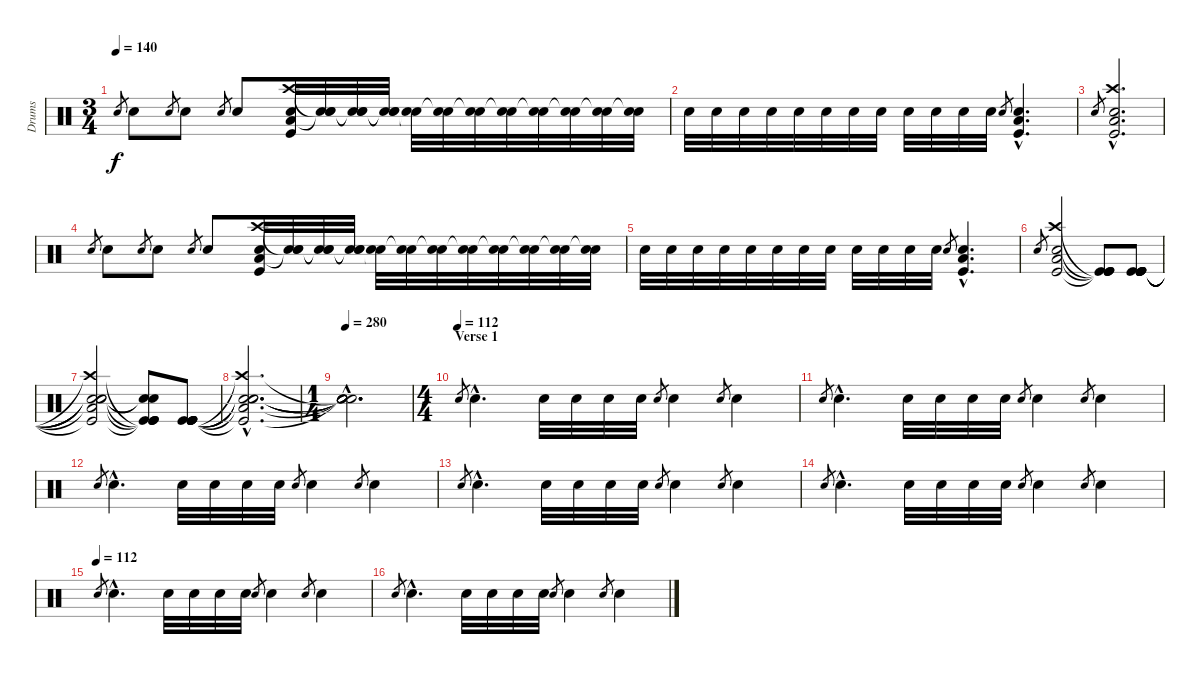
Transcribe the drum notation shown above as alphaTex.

\track ("Drums" "Drums") {instrument percussion}
\staff {score}
\articulation defaults
\ts (3 4)
\tempo 140
\clef neutral
\ks c "Snare (hit) 2".8{gr dy f} "Snare (hit) 2".8 "Snare (hit) 2".8{gr} "Snare (hit) 2".8 "Snare (hit) 2".8{gr} "Snare (hit) 2".8
("Crash high (hit)" "Snare (hit) 2" "Low Floor Tom (hit)" "Kick (hit)").32 ("Snare (hit)"{t} "Snare (hit) 2" "Snare (hit)"{t}).32 ("Snare (hit)"{t} "Snare (hit) 2" "Snare (hit)"{t}).32 ("Snare (hit)"{t} "Snare (hit) 2" "Snare (hit)"{t}).32 ("Snare (hit)"{t} "Snare (hit) 2").32 ("Snare (hit)"{t} "Snare (hit) 2").32 ("Snare (hit)"{t} "Snare (hit) 2").32 ("Snare (hit)"{t} "Snare (hit) 2").32 ("Snare (hit)"{t} "Snare (hit) 2").32 ("Snare (hit)"{t} "Snare (hit) 2").32 ("Snare (hit)"{t} "Snare (hit) 2").32 ("Snare (hit)"{t} "Snare (hit) 2").32 |
"Snare (hit) 2".32 "Snare (hit) 2".32 "Snare (hit) 2".32 "Snare (hit) 2".32 "Snare (hit) 2".32 "Snare (hit) 2".32 "Snare (hit) 2".32 "Snare (hit) 2".32 "Snare (hit) 2".32 "Snare (hit) 2".32 "Snare (hit) 2".32 "Snare (hit) 2".32 "Snare (hit) 2".8{gr} ("Snare (hit) 2"{hac} "Low Floor Tom (hit)"{hac} "Kick (hit)"{hac}).4{d} |
"Snare (hit) 2".8{gr} ("Crash high (hit)"{hac} "Snare (hit) 2"{hac} "Low Floor Tom (hit)"{hac} "Kick (hit)"{hac}).2{d} |
"Snare (hit) 2".8{gr} "Snare (hit) 2".8 "Snare (hit) 2".8{gr} "Snare (hit) 2".8 "Snare (hit) 2".8{gr} "Snare (hit) 2".8 ("Crash high (hit)" "Snare (hit) 2" "Low Floor Tom (hit)" "Kick (hit)").32 ("Snare (hit)"{t} "Snare (hit) 2" "Snare (hit)"{t}).32 ("Snare (hit)"{t} "Snare (hit) 2" "Snare (hit)"{t}).32 ("Snare (hit)"{t} "Snare (hit) 2" "Snare (hit)"{t}).32 ("Snare (hit)"{t} "Snare (hit) 2").32 ("Snare (hit)"{t} "Snare (hit) 2").32 ("Snare (hit)"{t} "Snare (hit) 2").32 ("Snare (hit)"{t} "Snare (hit) 2").32 ("Snare (hit)"{t} "Snare (hit) 2").32 ("Snare (hit)"{t} "Snare (hit) 2").32 ("Snare (hit)"{t} "Snare (hit) 2").32 ("Snare (hit)"{t} "Snare (hit) 2").32 |
"Snare (hit) 2".32 "Snare (hit) 2".32 "Snare (hit) 2".32 "Snare (hit) 2".32 "Snare (hit) 2".32 "Snare (hit) 2".32 "Snare (hit) 2".32 "Snare (hit) 2".32 "Snare (hit) 2".32 "Snare (hit) 2".32 "Snare (hit) 2".32 "Snare (hit) 2".32 "Snare (hit) 2".8{gr} ("Snare (hit) 2"{hac} "Low Floor Tom (hit)"{hac} "Kick (hit)"{hac}).4{d} |
"Snare (hit) 2".8{gr} ("Crash high (hit)" "Snare (hit) 2" "Low Floor Tom (hit)" "Kick (hit)").2 ("Kick (hit)"{t} "Kick (hit)"{t} "Kick (hit)"{t} "Kick (hit)"{t}).8 ("Kick (hit)" "Kick (hit)" "Kick (hit)" "Kick (hit)" "Kick (hit)" "Kick (hit)").8{volume 16} |
("Crash high (hit)"{t} "Snare (hit)"{t} "Snare (hit)"{t} "Snare (hit) 2"{t} "Low Floor Tom (hit)"{t} "Kick (hit)"{t}).2 ("Kick (hit)"{t} "Snare (hit)"{t} "Snare (hit)"{t} "Kick (hit)"{t} "Kick (hit)"{t} "Kick (hit)"{t}).8 ("Kick (hit)" "Kick (hit)" "Kick (hit)" "Kick (hit)" "Kick (hit)" "Kick (hit)").8 |
("Crash high (hit)"{hac t} "Snare (hit)"{hac t} "Snare (hit)"{hac t} "Snare (hit) 2"{hac t} "Low Floor Tom (hit)"{hac t} "Kick (hit)"{hac t}).2{d} |
\ts (1 4)
\tempo 280
("Snare (hit)"{hac t} "Snare (hit)"{hac t} "Snare (hit)"{hac t} "Snare (hit)"{hac t} "Snare (hit)"{hac t} "Snare (hit)"{hac t}).2{d} |
\ts (4 4)
\section ("" "Verse 1")
\tempo (112)
"Snare (hit) 2".8{gr} "Snare (hit) 2"{hac}.4{d volume 10 balance 8} "Snare (hit) 2".32 "Snare (hit) 2".32 "Snare (hit) 2".32 "Snare (hit) 2".32 "Snare (hit) 2".8{gr} "Snare (hit) 2".4 "Snare (hit) 2".8{gr} "Snare (hit) 2".4 |
"Snare (hit) 2".8{gr} "Snare (hit) 2"{hac}.4{d} "Snare (hit) 2".32 "Snare (hit) 2".32 "Snare (hit) 2".32 "Snare (hit) 2".32 "Snare (hit) 2".8{gr} "Snare (hit) 2".4 "Snare (hit) 2".8{gr} "Snare (hit) 2".4 |
"Snare (hit) 2".8{gr} "Snare (hit) 2"{hac}.4{d} "Snare (hit) 2".32 "Snare (hit) 2".32 "Snare (hit) 2".32 "Snare (hit) 2".32 "Snare (hit) 2".8{gr} "Snare (hit) 2".4 "Snare (hit) 2".8{gr} "Snare (hit) 2".4 |
"Snare (hit) 2".8{gr} "Snare (hit) 2"{hac}.4{d} "Snare (hit) 2".32 "Snare (hit) 2".32 "Snare (hit) 2".32 "Snare (hit) 2".32 "Snare (hit) 2".8{gr} "Snare (hit) 2".4 "Snare (hit) 2".8{gr} "Snare (hit) 2".4 |
"Snare (hit) 2".8{gr} "Snare (hit) 2"{hac}.4{d} "Snare (hit) 2".32 "Snare (hit) 2".32 "Snare (hit) 2".32 "Snare (hit) 2".32 "Snare (hit) 2".8{gr} "Snare (hit) 2".4 "Snare (hit) 2".8{gr} "Snare (hit) 2".4 |
\tempo (112)
"Snare (hit) 2".8{gr} "Snare (hit) 2"{hac}.4{d} "Snare (hit) 2".32 "Snare (hit) 2".32 "Snare (hit) 2".32 "Snare (hit) 2".32 "Snare (hit) 2".8{gr} "Snare (hit) 2".4 "Snare (hit) 2".8{gr} "Snare (hit) 2".4 |
"Snare (hit) 2".8{gr} "Snare (hit) 2"{hac}.4{d} "Snare (hit) 2".32 "Snare (hit) 2".32 "Snare (hit) 2".32 "Snare (hit) 2".32 "Snare (hit) 2".8{gr} "Snare (hit) 2".4 "Snare (hit) 2".8{gr} "Snare (hit) 2".4
